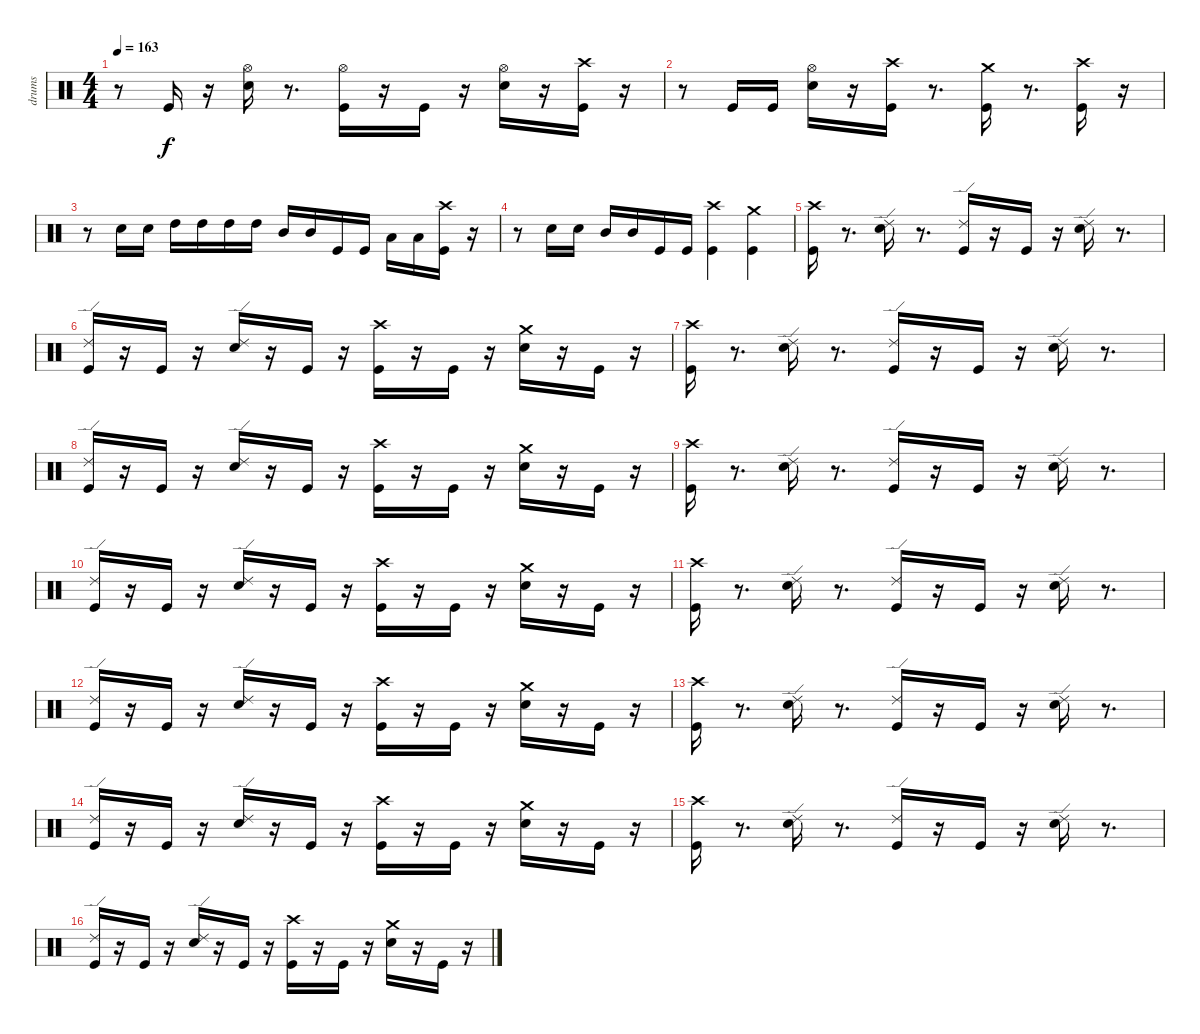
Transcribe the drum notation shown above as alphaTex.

\track ("drums" "drums") {instrument percussion}
\staff {score}
\articulation defaults
\ts (4 4)
\tempo 163
\clef neutral
\ks c
r.8{dy f} "Kick (hit)".16 r.16 ("Hi-Hat (open)" "Snare (hit) 2").16 r.8{d} ("Hi-Hat (open)" "Kick (hit)").16 r.16 "Kick (hit)".16 r.16 ("Hi-Hat (open)" "Snare (hit) 2").16 r.16 ("Crash high (hit)" "Kick (hit)").16 r.16 |
r.8 "Kick (hit)".16 "Kick (hit)".16 ("Hi-Hat (open)" "Snare (hit) 2").16 r.16 ("Kick (hit)" "Crash high (hit)").16 r.8{d} ("Kick (hit)" "Crash medium (hit)").16 r.8{d} ("Kick (hit)" "Crash high (hit)").16 r.16 |
r.8 "Snare (hit) 2".16 "Snare (hit) 2".16 "High Tom (hit)".16 "High Tom (hit)".16 "High Tom (hit)".16 "High Tom (hit)".16 "Mid Tom (hit)".16 "Mid Tom (hit)".16 "Kick (hit)".16 "Kick (hit)".16 "Low Tom (hit)".16 "Low Tom (hit)".16 ("Crash high (hit)" "Kick (hit)").16 r.16 |
r.8 "Snare (hit) 2".16 "Snare (hit) 2".16 "Mid Tom (hit)".16 "Mid Tom (hit)".16 "Kick (hit)".16 "Kick (hit)".16 ("Crash high (hit)" "Kick (hit)").4 ("Crash medium (hit)" "Kick (hit)").4 |
("Crash high (hit)" "Kick (hit)").16 r.8{d} ("Ride (edge) 2" "Snare (hit) 2").16 r.8{d} ("Ride (edge) 2" "Kick (hit)").16 r.16 "Kick (hit)".16 r.16 ("Ride (edge) 2" "Snare (hit) 2").16 r.8{d} |
("Ride (edge) 2" "Kick (hit)").16 r.16 "Kick (hit)".16 r.16 ("Ride (edge) 2" "Snare (hit) 2").16 r.16 "Kick (hit)".16 r.16 ("Crash high (hit)" "Kick (hit)").16 r.16 "Kick (hit)".16 r.16 ("Crash medium (hit)" "Snare (hit) 2").16 r.16 "Kick (hit)".16 r.16 |
("Crash high (hit)" "Kick (hit)").16 r.8{d} ("Ride (edge) 2" "Snare (hit) 2").16 r.8{d} ("Ride (edge) 2" "Kick (hit)").16 r.16 "Kick (hit)".16 r.16 ("Ride (edge) 2" "Snare (hit) 2").16 r.8{d} |
("Ride (edge) 2" "Kick (hit)").16 r.16 "Kick (hit)".16 r.16 ("Ride (edge) 2" "Snare (hit) 2").16 r.16 "Kick (hit)".16 r.16 ("Crash high (hit)" "Kick (hit)").16 r.16 "Kick (hit)".16 r.16 ("Crash medium (hit)" "Snare (hit) 2").16 r.16 "Kick (hit)".16 r.16 |
("Crash high (hit)" "Kick (hit)").16 r.8{d} ("Ride (edge) 2" "Snare (hit) 2").16 r.8{d} ("Ride (edge) 2" "Kick (hit)").16 r.16 "Kick (hit)".16 r.16 ("Ride (edge) 2" "Snare (hit) 2").16 r.8{d} |
("Ride (edge) 2" "Kick (hit)").16 r.16 "Kick (hit)".16 r.16 ("Ride (edge) 2" "Snare (hit) 2").16 r.16 "Kick (hit)".16 r.16 ("Crash high (hit)" "Kick (hit)").16 r.16 "Kick (hit)".16 r.16 ("Crash medium (hit)" "Snare (hit) 2").16 r.16 "Kick (hit)".16 r.16 |
("Crash high (hit)" "Kick (hit)").16 r.8{d} ("Ride (edge) 2" "Snare (hit) 2").16 r.8{d} ("Ride (edge) 2" "Kick (hit)").16 r.16 "Kick (hit)".16 r.16 ("Ride (edge) 2" "Snare (hit) 2").16 r.8{d} |
("Ride (edge) 2" "Kick (hit)").16 r.16 "Kick (hit)".16 r.16 ("Ride (edge) 2" "Snare (hit) 2").16 r.16 "Kick (hit)".16 r.16 ("Crash high (hit)" "Kick (hit)").16 r.16 "Kick (hit)".16 r.16 ("Crash medium (hit)" "Snare (hit) 2").16 r.16 "Kick (hit)".16 r.16 |
("Crash high (hit)" "Kick (hit)").16 r.8{d} ("Ride (edge) 2" "Snare (hit) 2").16 r.8{d} ("Ride (edge) 2" "Kick (hit)").16 r.16 "Kick (hit)".16 r.16 ("Ride (edge) 2" "Snare (hit) 2").16 r.8{d} |
("Ride (edge) 2" "Kick (hit)").16 r.16 "Kick (hit)".16 r.16 ("Ride (edge) 2" "Snare (hit) 2").16 r.16 "Kick (hit)".16 r.16 ("Crash high (hit)" "Kick (hit)").16 r.16 "Kick (hit)".16 r.16 ("Crash medium (hit)" "Snare (hit) 2").16 r.16 "Kick (hit)".16 r.16 |
("Crash high (hit)" "Kick (hit)").16 r.8{d} ("Ride (edge) 2" "Snare (hit) 2").16 r.8{d} ("Ride (edge) 2" "Kick (hit)").16 r.16 "Kick (hit)".16 r.16 ("Ride (edge) 2" "Snare (hit) 2").16 r.8{d} |
("Ride (edge) 2" "Kick (hit)").16 r.16 "Kick (hit)".16 r.16 ("Ride (edge) 2" "Snare (hit) 2").16 r.16 "Kick (hit)".16 r.16 ("Crash high (hit)" "Kick (hit)").16 r.16 "Kick (hit)".16 r.16 ("Crash medium (hit)" "Snare (hit) 2").16 r.16 "Kick (hit)".16 r.16
